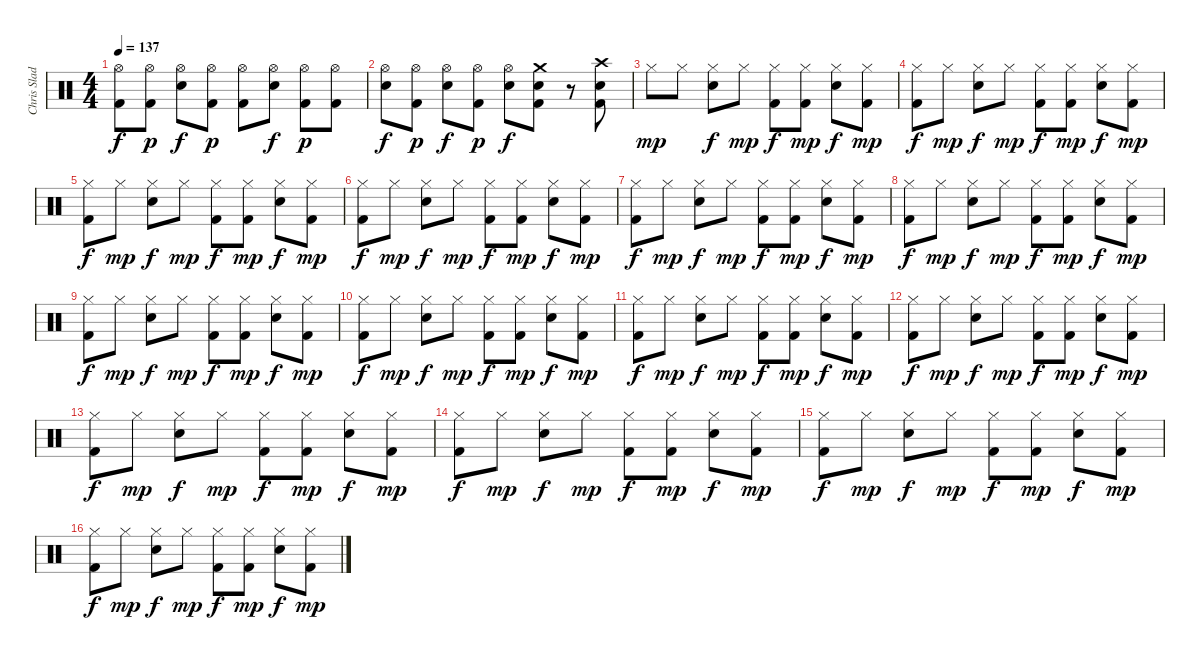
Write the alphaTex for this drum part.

\track ("Chris Slade / Drums" "Chris Slad") {instrument percussion}
\staff {score}
\articulation defaults
\ts (4 4)
\tempo 137
\clef neutral
\ks c
("Hi-Hat (open)" "Kick (hit) 2").8{dy f} ("Hi-Hat (open)" "Kick (hit) 2").8{dy p} ("Hi-Hat (open)" "Electric Snare (hit)").8{dy f} ("Hi-Hat (open)" "Kick (hit) 2").8{dy p} ("Hi-Hat (open)" "Kick (hit) 2").8 ("Hi-Hat (open)" "Electric Snare (hit)").8{dy f} ("Hi-Hat (open)" "Kick (hit) 2").8{dy p} ("Hi-Hat (open)" "Kick (hit) 2").8 |
("Hi-Hat (open)" "Electric Snare (hit)").8{dy f} ("Hi-Hat (open)" "Kick (hit) 2").8{dy p} ("Hi-Hat (open)" "Electric Snare (hit)").8{dy f} ("Hi-Hat (open)" "Kick (hit) 2").8{dy p} ("Hi-Hat (open)" "Electric Snare (hit)").8{dy f} ("Crash medium (hit)" "Electric Snare (hit)" "Kick (hit) 2").8 r.8 ("Crash high (hit)" "Kick (hit) 2" "Electric Snare (hit)").8 |
"Hi-Hat (closed)".8{dy mp} "Hi-Hat (closed)".8 ("Hi-Hat (closed)" "Electric Snare (hit)").8{dy f} "Hi-Hat (closed)".8{dy mp} ("Hi-Hat (closed)" "Kick (hit) 2").8{dy f} ("Hi-Hat (closed)" "Kick (hit) 2").8{dy mp} ("Hi-Hat (closed)" "Electric Snare (hit)").8{dy f} ("Hi-Hat (closed)" "Kick (hit) 2").8{dy mp} |
("Hi-Hat (closed)" "Kick (hit) 2").8{dy f} "Hi-Hat (closed)".8{dy mp} ("Hi-Hat (closed)" "Electric Snare (hit)").8{dy f} "Hi-Hat (closed)".8{dy mp} ("Hi-Hat (closed)" "Kick (hit) 2").8{dy f} ("Hi-Hat (closed)" "Kick (hit) 2").8{dy mp} ("Hi-Hat (closed)" "Electric Snare (hit)").8{dy f} ("Hi-Hat (closed)" "Kick (hit) 2").8{dy mp} |
("Hi-Hat (closed)" "Kick (hit) 2").8{dy f} "Hi-Hat (closed)".8{dy mp} ("Hi-Hat (closed)" "Electric Snare (hit)").8{dy f} "Hi-Hat (closed)".8{dy mp} ("Hi-Hat (closed)" "Kick (hit) 2").8{dy f} ("Hi-Hat (closed)" "Kick (hit) 2").8{dy mp} ("Hi-Hat (closed)" "Electric Snare (hit)").8{dy f} ("Hi-Hat (closed)" "Kick (hit) 2").8{dy mp} |
("Hi-Hat (closed)" "Kick (hit) 2").8{dy f} "Hi-Hat (closed)".8{dy mp} ("Hi-Hat (closed)" "Electric Snare (hit)").8{dy f} "Hi-Hat (closed)".8{dy mp} ("Hi-Hat (closed)" "Kick (hit) 2").8{dy f} ("Hi-Hat (closed)" "Kick (hit) 2").8{dy mp} ("Hi-Hat (closed)" "Electric Snare (hit)").8{dy f} ("Hi-Hat (closed)" "Kick (hit) 2").8{dy mp} |
("Hi-Hat (closed)" "Kick (hit) 2").8{dy f} "Hi-Hat (closed)".8{dy mp} ("Hi-Hat (closed)" "Electric Snare (hit)").8{dy f} "Hi-Hat (closed)".8{dy mp} ("Hi-Hat (closed)" "Kick (hit) 2").8{dy f} ("Hi-Hat (closed)" "Kick (hit) 2").8{dy mp} ("Hi-Hat (closed)" "Electric Snare (hit)").8{dy f} ("Hi-Hat (closed)" "Kick (hit) 2").8{dy mp} |
("Hi-Hat (closed)" "Kick (hit) 2").8{dy f} "Hi-Hat (closed)".8{dy mp} ("Hi-Hat (closed)" "Electric Snare (hit)").8{dy f} "Hi-Hat (closed)".8{dy mp} ("Hi-Hat (closed)" "Kick (hit) 2").8{dy f} ("Hi-Hat (closed)" "Kick (hit) 2").8{dy mp} ("Hi-Hat (closed)" "Electric Snare (hit)").8{dy f} ("Hi-Hat (closed)" "Kick (hit) 2").8{dy mp} |
("Hi-Hat (closed)" "Kick (hit) 2").8{dy f} "Hi-Hat (closed)".8{dy mp} ("Hi-Hat (closed)" "Electric Snare (hit)").8{dy f} "Hi-Hat (closed)".8{dy mp} ("Hi-Hat (closed)" "Kick (hit) 2").8{dy f} ("Hi-Hat (closed)" "Kick (hit) 2").8{dy mp} ("Hi-Hat (closed)" "Electric Snare (hit)").8{dy f} ("Hi-Hat (closed)" "Kick (hit) 2").8{dy mp} |
("Hi-Hat (closed)" "Kick (hit) 2").8{dy f} "Hi-Hat (closed)".8{dy mp} ("Hi-Hat (closed)" "Electric Snare (hit)").8{dy f} "Hi-Hat (closed)".8{dy mp} ("Hi-Hat (closed)" "Kick (hit) 2").8{dy f} ("Hi-Hat (closed)" "Kick (hit) 2").8{dy mp} ("Hi-Hat (closed)" "Electric Snare (hit)").8{dy f} ("Hi-Hat (closed)" "Kick (hit) 2").8{dy mp} |
("Hi-Hat (closed)" "Kick (hit) 2").8{dy f} "Hi-Hat (closed)".8{dy mp} ("Hi-Hat (closed)" "Electric Snare (hit)").8{dy f} "Hi-Hat (closed)".8{dy mp} ("Hi-Hat (closed)" "Kick (hit) 2").8{dy f} ("Hi-Hat (closed)" "Kick (hit) 2").8{dy mp} ("Hi-Hat (closed)" "Electric Snare (hit)").8{dy f} ("Hi-Hat (closed)" "Kick (hit) 2").8{dy mp} |
("Hi-Hat (closed)" "Kick (hit) 2").8{dy f} "Hi-Hat (closed)".8{dy mp} ("Hi-Hat (closed)" "Electric Snare (hit)").8{dy f} "Hi-Hat (closed)".8{dy mp} ("Hi-Hat (closed)" "Kick (hit) 2").8{dy f} ("Hi-Hat (closed)" "Kick (hit) 2").8{dy mp} ("Hi-Hat (closed)" "Electric Snare (hit)").8{dy f} ("Hi-Hat (closed)" "Kick (hit) 2").8{dy mp} |
("Hi-Hat (closed)" "Kick (hit) 2").8{dy f} "Hi-Hat (closed)".8{dy mp} ("Hi-Hat (closed)" "Electric Snare (hit)").8{dy f} "Hi-Hat (closed)".8{dy mp} ("Hi-Hat (closed)" "Kick (hit) 2").8{dy f} ("Hi-Hat (closed)" "Kick (hit) 2").8{dy mp} ("Hi-Hat (closed)" "Electric Snare (hit)").8{dy f} ("Hi-Hat (closed)" "Kick (hit) 2").8{dy mp} |
("Hi-Hat (closed)" "Kick (hit) 2").8{dy f} "Hi-Hat (closed)".8{dy mp} ("Hi-Hat (closed)" "Electric Snare (hit)").8{dy f} "Hi-Hat (closed)".8{dy mp} ("Hi-Hat (closed)" "Kick (hit) 2").8{dy f} ("Hi-Hat (closed)" "Kick (hit) 2").8{dy mp} ("Hi-Hat (closed)" "Electric Snare (hit)").8{dy f} ("Hi-Hat (closed)" "Kick (hit) 2").8{dy mp} |
("Hi-Hat (closed)" "Kick (hit) 2").8{dy f} "Hi-Hat (closed)".8{dy mp} ("Hi-Hat (closed)" "Electric Snare (hit)").8{dy f} "Hi-Hat (closed)".8{dy mp} ("Hi-Hat (closed)" "Kick (hit) 2").8{dy f} ("Hi-Hat (closed)" "Kick (hit) 2").8{dy mp} ("Hi-Hat (closed)" "Electric Snare (hit)").8{dy f} ("Hi-Hat (closed)" "Kick (hit) 2").8{dy mp} |
("Hi-Hat (closed)" "Kick (hit) 2").8{dy f} "Hi-Hat (closed)".8{dy mp} ("Hi-Hat (closed)" "Electric Snare (hit)").8{dy f} "Hi-Hat (closed)".8{dy mp} ("Hi-Hat (closed)" "Kick (hit) 2").8{dy f} ("Hi-Hat (closed)" "Kick (hit) 2").8{dy mp} ("Hi-Hat (closed)" "Electric Snare (hit)").8{dy f} ("Hi-Hat (closed)" "Kick (hit) 2").8{dy mp}
